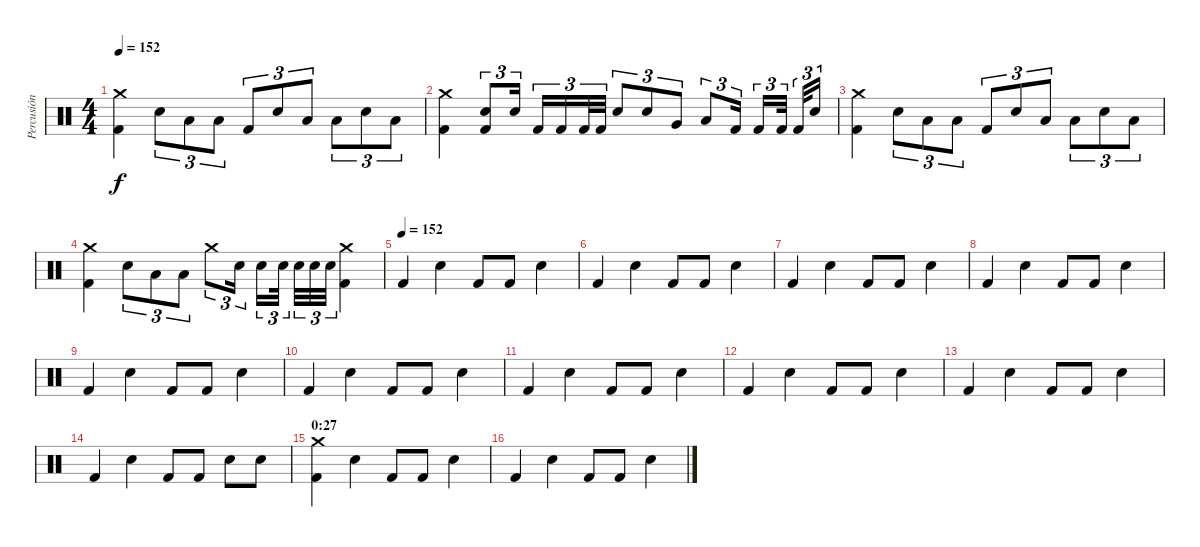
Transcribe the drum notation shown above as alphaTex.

\track ("Percusión" "Percusión") {instrument percussion}
\staff {score}
\articulation defaults
\ts (4 4)
\tempo 152
\tempo 77
\tempo 152
\clef neutral
\ks c
("Crash medium (hit)" "Kick (hit) 2").4{dy f} "Snare (hit) 2".8{tu (3 2)} "Low Floor Tom (hit)".8{tu (3 2)} "Low Floor Tom (hit)".8{tu (3 2)} "Kick (hit) 2".8{tu (3 2)} "Snare (hit) 2".8{tu (3 2)} "Low Floor Tom (hit)".8{tu (3 2)} "Low Floor Tom (hit)".8{tu (3 2)} "Snare (hit) 2".8{tu (3 2)} "Low Floor Tom (hit)".8{tu (3 2)} |
("Crash medium (hit)" "Kick (hit) 2").4 ("Snare (hit) 2" "Kick (hit) 2").8{tu (3 2) bd 120} "Snare (hit) 2".16{tu (3 2) bd 120} "Kick (hit) 2".16{tu (3 2)} "Kick (hit) 2".16{tu (3 2)} "Kick (hit) 2".32{tu (3 2)} "Kick (hit) 2".32{tu (3 2)} "Snare (hit) 2".8{tu (3 2)} "Snare (hit) 2".8{tu (3 2)} "Very Low Tom (hit)".8{tu (3 2)} "Low Floor Tom (hit)".8{tu (3 2)} "Kick (hit) 2".16{tu (3 2)} "Kick (hit) 2".16{tu (3 2)} "Kick (hit) 2".32{tu (3 2)} "Kick (hit) 2".32{tu (3 2)} "Snare (hit) 2".16{tu (3 2)} |
("Crash medium (hit)" "Kick (hit) 2").4 "Snare (hit) 2".8{tu (3 2)} "Low Floor Tom (hit)".8{tu (3 2)} "Low Floor Tom (hit)".8{tu (3 2)} "Kick (hit) 2".8{tu (3 2)} "Snare (hit) 2".8{tu (3 2)} "Low Floor Tom (hit)".8{tu (3 2)} "Low Floor Tom (hit)".8{tu (3 2)} "Snare (hit) 2".8{tu (3 2)} "Low Floor Tom (hit)".8{tu (3 2)} |
("Crash medium (hit)" "Kick (hit) 2").4 "Snare (hit) 2".8{tu (3 2)} "Low Floor Tom (hit)".8{tu (3 2)} "Low Floor Tom (hit)".8{tu (3 2)} "Crash medium (hit)".8{tu (3 2)} "Snare (hit) 2".16{tu (3 2)} "Snare (hit) 2".16{tu (3 2)} "Snare (hit) 2".32{tu (3 2)} "Snare (hit) 2".32{tu (3 2)} "Snare (hit) 2".32{tu (3 2)} "Snare (hit) 2".32{tu (3 2)} ("Crash medium (hit)" "Kick (hit) 2").4 |
\tempo (152)
"Kick (hit) 2".4 "Snare (hit) 2".4 "Kick (hit) 2".8 "Kick (hit) 2".8 "Snare (hit) 2".4 |
"Kick (hit) 2".4 "Snare (hit) 2".4 "Kick (hit) 2".8 "Kick (hit) 2".8 "Snare (hit) 2".4 |
"Kick (hit) 2".4 "Snare (hit) 2".4 "Kick (hit) 2".8 "Kick (hit) 2".8 "Snare (hit) 2".4 |
"Kick (hit) 2".4 "Snare (hit) 2".4 "Kick (hit) 2".8 "Kick (hit) 2".8 "Snare (hit) 2".4 |
"Kick (hit) 2".4 "Snare (hit) 2".4 "Kick (hit) 2".8 "Kick (hit) 2".8 "Snare (hit) 2".4 |
"Kick (hit) 2".4 "Snare (hit) 2".4 "Kick (hit) 2".8 "Kick (hit) 2".8 "Snare (hit) 2".4 |
"Kick (hit) 2".4 "Snare (hit) 2".4 "Kick (hit) 2".8 "Kick (hit) 2".8 "Snare (hit) 2".4 |
"Kick (hit) 2".4 "Snare (hit) 2".4 "Kick (hit) 2".8 "Kick (hit) 2".8 "Snare (hit) 2".4 |
"Kick (hit) 2".4 "Snare (hit) 2".4 "Kick (hit) 2".8 "Kick (hit) 2".8 "Snare (hit) 2".4 |
"Kick (hit) 2".4 "Snare (hit) 2".4 "Kick (hit) 2".8 "Kick (hit) 2".8 "Snare (hit) 2".8 "Snare (hit) 2".8 |
\section ("" "0:27")
("Kick (hit) 2" "Crash medium (hit)").4 "Snare (hit) 2".4 "Kick (hit) 2".8 "Kick (hit) 2".8 "Snare (hit) 2".4 |
"Kick (hit) 2".4 "Snare (hit) 2".4 "Kick (hit) 2".8 "Kick (hit) 2".8 "Snare (hit) 2".4
